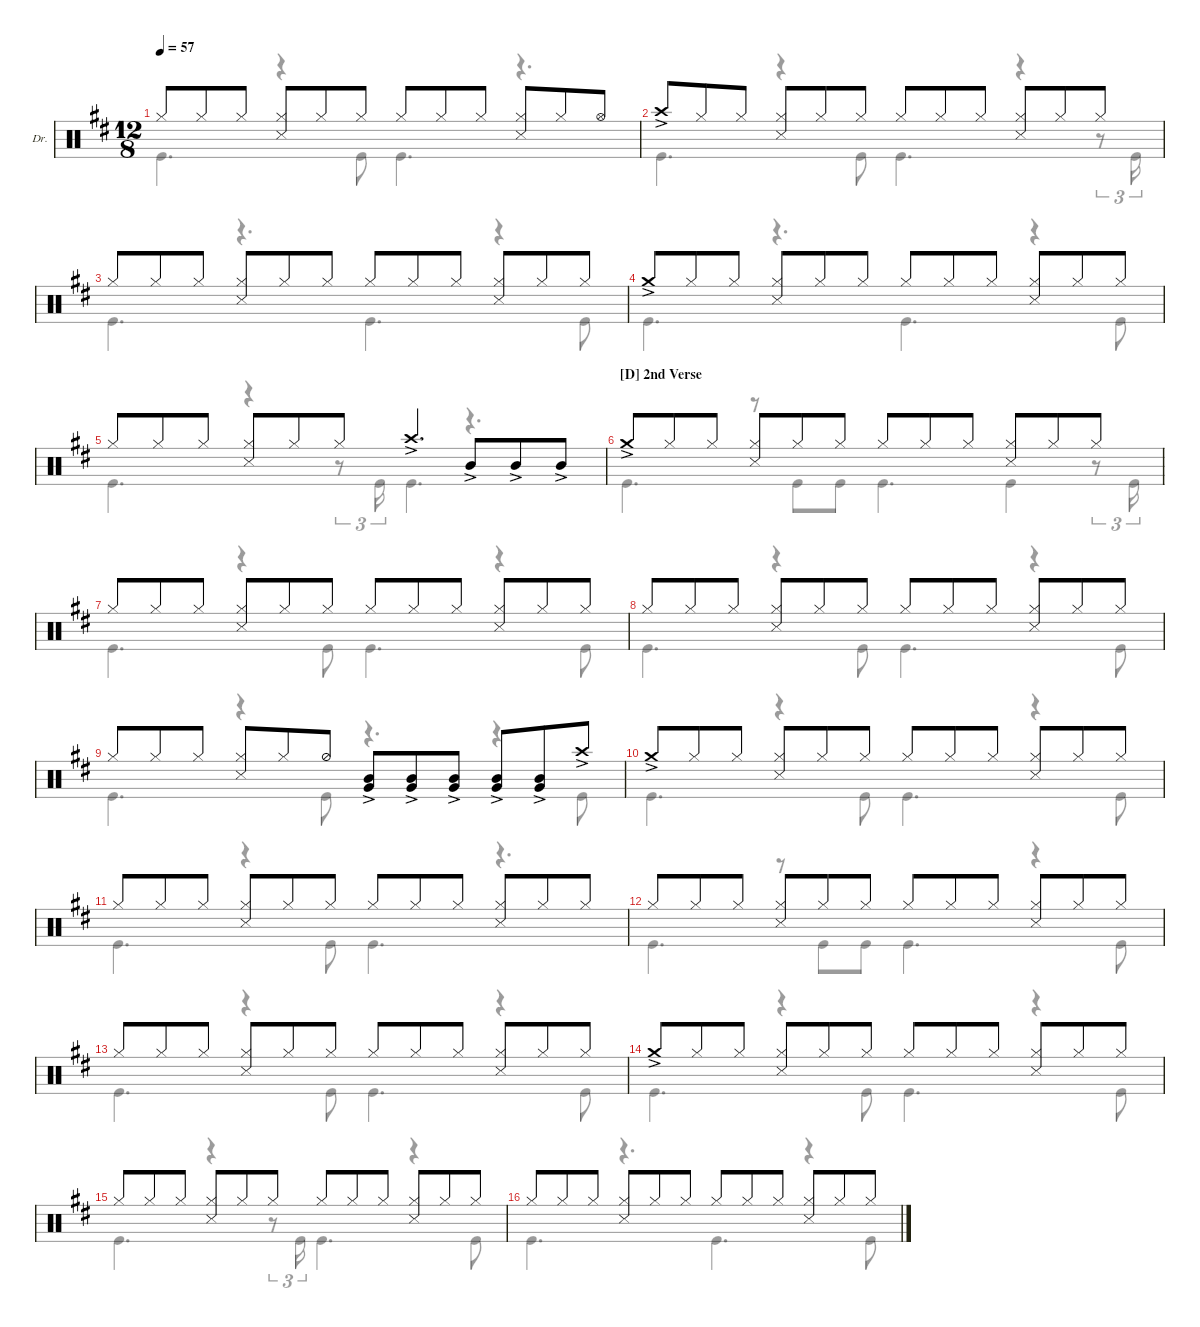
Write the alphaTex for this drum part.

\defaultSystemsLayout 4
\hideDynamics
\bracketExtendMode groupsimilarinstruments
\firstSystemTrackNameOrientation horizontal
\otherSystemsTrackNameOrientation horizontal
\track ("Drums" "Dr.") {instrument percussion}
\staff {score}
\articulation defaults
\voice
\ts (12 8)
\tempo 57
\clef neutral
\ks d "Hi-Hat (closed)".8{dy p} "Hi-Hat (closed)".8 "Hi-Hat (closed)".8
("Hi-Hat (closed)" "Snare (side stick) 3").8 "Hi-Hat (closed)".8 "Hi-Hat (closed)".8 "Hi-Hat (closed)".8 "Hi-Hat (closed)".8 "Hi-Hat (closed)".8 ("Hi-Hat (closed)" "Snare (side stick) 3").8 "Hi-Hat (closed)".8 "Hi-Hat (open)".8 |
"Crash high (hit)"{ac}.8 "Hi-Hat (closed)".8 "Hi-Hat (closed)".8 ("Hi-Hat (closed)" "Snare (side stick) 3").8 "Hi-Hat (closed)".8 "Hi-Hat (closed)".8 "Hi-Hat (closed)".8 "Hi-Hat (closed)".8 "Hi-Hat (closed)".8 ("Hi-Hat (closed)" "Snare (side stick) 3").8 "Hi-Hat (closed)".8 "Hi-Hat (closed)".8 |
"Hi-Hat (closed)".8 "Hi-Hat (closed)".8 "Hi-Hat (closed)".8 ("Hi-Hat (closed)" "Snare (side stick) 3").8 "Hi-Hat (closed)".8 "Hi-Hat (closed)".8 "Hi-Hat (closed)".8 "Hi-Hat (closed)".8 "Hi-Hat (closed)".8 ("Hi-Hat (closed)" "Snare (side stick) 3").8 "Hi-Hat (closed)".8 "Hi-Hat (closed)".8 |
"Crash medium (hit)"{ac}.8 "Hi-Hat (closed)".8 "Hi-Hat (closed)".8 ("Hi-Hat (closed)" "Snare (side stick) 3").8 "Hi-Hat (closed)".8 "Hi-Hat (closed)".8 "Hi-Hat (closed)".8 "Hi-Hat (closed)".8 "Hi-Hat (closed)".8 ("Hi-Hat (closed)" "Snare (side stick) 3").8 "Hi-Hat (closed)".8 "Hi-Hat (closed)".8 |
"Hi-Hat (closed)".8 "Hi-Hat (closed)".8 "Hi-Hat (closed)".8 ("Hi-Hat (closed)" "Snare (side stick) 3").8 "Hi-Hat (closed)".8 "Hi-Hat (closed)".8 "Crash high (hit)"{ac}.4{d} "Mid Tom (hit)"{ac}.8 "Mid Tom (hit)"{ac}.8 "Mid Tom (hit)"{ac}.8 |
\section ("D" "2nd Verse")
"Crash medium (hit)"{ac}.8 "Hi-Hat (closed)".8 "Hi-Hat (closed)".8 ("Hi-Hat (closed)" "Snare (side stick) 3").8 "Hi-Hat (closed)".8 "Hi-Hat (closed)".8 "Hi-Hat (closed)".8 "Hi-Hat (closed)".8 "Hi-Hat (closed)".8 ("Hi-Hat (closed)" "Snare (side stick) 3").8 "Hi-Hat (closed)".8 "Hi-Hat (closed)".8 |
"Hi-Hat (closed)".8 "Hi-Hat (closed)".8 "Hi-Hat (closed)".8 ("Hi-Hat (closed)" "Snare (side stick) 3").8 "Hi-Hat (closed)".8 "Hi-Hat (closed)".8 "Hi-Hat (closed)".8 "Hi-Hat (closed)".8 "Hi-Hat (closed)".8 ("Hi-Hat (closed)" "Snare (side stick) 3").8 "Hi-Hat (closed)".8 "Hi-Hat (closed)".8 |
"Hi-Hat (closed)".8 "Hi-Hat (closed)".8 "Hi-Hat (closed)".8 ("Hi-Hat (closed)" "Snare (side stick) 3").8 "Hi-Hat (closed)".8 "Hi-Hat (closed)".8 "Hi-Hat (closed)".8 "Hi-Hat (closed)".8 "Hi-Hat (closed)".8 ("Hi-Hat (closed)" "Snare (side stick) 3").8 "Hi-Hat (closed)".8 "Hi-Hat (closed)".8 |
"Hi-Hat (closed)".8 "Hi-Hat (closed)".8 "Hi-Hat (closed)".8 ("Hi-Hat (closed)" "Snare (side stick) 3").8 "Hi-Hat (closed)".8 "Hi-Hat (half)".8 ("Mid Tom (hit)"{ac} "Very Low Tom (hit)").8 ("Mid Tom (hit)"{ac} "Very Low Tom (hit)").8 ("Mid Tom (hit)"{ac} "Very Low Tom (hit)").8 ("Mid Tom (hit)"{ac} "Very Low Tom (hit)").8 ("Mid Tom (hit)"{ac} "Very Low Tom (hit)").8 "Crash high (hit)"{ac}.8 |
"Crash medium (hit)"{ac}.8 "Hi-Hat (closed)".8 "Hi-Hat (closed)".8 ("Hi-Hat (closed)" "Snare (side stick) 3").8 "Hi-Hat (closed)".8 "Hi-Hat (closed)".8 "Hi-Hat (closed)".8 "Hi-Hat (closed)".8 "Hi-Hat (closed)".8 ("Hi-Hat (closed)" "Snare (side stick) 3").8 "Hi-Hat (closed)".8 "Hi-Hat (closed)".8 |
"Hi-Hat (closed)".8 "Hi-Hat (closed)".8 "Hi-Hat (closed)".8 ("Hi-Hat (closed)" "Snare (side stick) 3").8 "Hi-Hat (closed)".8 "Hi-Hat (closed)".8 "Hi-Hat (closed)".8 "Hi-Hat (closed)".8 "Hi-Hat (closed)".8 ("Hi-Hat (closed)" "Snare (side stick) 3").8 "Hi-Hat (closed)".8 "Hi-Hat (closed)".8 |
"Hi-Hat (closed)".8 "Hi-Hat (closed)".8 "Hi-Hat (closed)".8 ("Hi-Hat (closed)" "Snare (side stick) 3").8 "Hi-Hat (closed)".8 "Hi-Hat (closed)".8 "Hi-Hat (closed)".8 "Hi-Hat (closed)".8 "Hi-Hat (closed)".8 ("Hi-Hat (closed)" "Snare (side stick) 3").8 "Hi-Hat (closed)".8 "Hi-Hat (closed)".8 |
"Hi-Hat (closed)".8 "Hi-Hat (closed)".8 "Hi-Hat (closed)".8 ("Hi-Hat (closed)" "Snare (side stick) 3").8 "Hi-Hat (closed)".8 "Hi-Hat (closed)".8 "Hi-Hat (closed)".8 "Hi-Hat (closed)".8 "Hi-Hat (closed)".8 ("Hi-Hat (closed)" "Snare (side stick) 3").8 "Hi-Hat (closed)".8 "Hi-Hat (closed)".8 |
"Crash medium (hit)"{ac}.8 "Hi-Hat (closed)".8 "Hi-Hat (closed)".8 ("Hi-Hat (closed)" "Snare (side stick) 3").8 "Hi-Hat (closed)".8 "Hi-Hat (closed)".8 "Hi-Hat (closed)".8 "Hi-Hat (closed)".8 "Hi-Hat (closed)".8 ("Hi-Hat (closed)" "Snare (side stick) 3").8 "Hi-Hat (closed)".8 "Hi-Hat (closed)".8 |
"Hi-Hat (closed)".8 "Hi-Hat (closed)".8 "Hi-Hat (closed)".8 ("Hi-Hat (closed)" "Snare (side stick) 3").8 "Hi-Hat (closed)".8 "Hi-Hat (closed)".8 "Hi-Hat (closed)".8 "Hi-Hat (closed)".8 "Hi-Hat (closed)".8 ("Hi-Hat (closed)" "Snare (side stick) 3").8 "Hi-Hat (closed)".8 "Hi-Hat (closed)".8 |
"Hi-Hat (closed)".8 "Hi-Hat (closed)".8 "Hi-Hat (closed)".8 ("Hi-Hat (closed)" "Snare (side stick) 3").8 "Hi-Hat (closed)".8 "Hi-Hat (closed)".8 "Hi-Hat (closed)".8 "Hi-Hat (closed)".8 "Hi-Hat (closed)".8 ("Hi-Hat (closed)" "Snare (side stick) 3").8 "Hi-Hat (closed)".8 "Hi-Hat (closed)".8
\voice
\clef neutral
\ottava regular
\simile none
\ks d "Kick (hit)".4{d dy p}
r.4 "Kick (hit)".8 "Kick (hit)".4{d} r.4{d} |
"Kick (hit)".4{d} r.4 "Kick (hit)".8 "Kick (hit)".4{d} r.4 r.8{tu (3 2)} "Kick (hit)".16{tu (3 2)} |
"Kick (hit)".4{d} r.4{d} "Kick (hit)".4{d} r.4 "Kick (hit)".8 |
"Kick (hit)".4{d} r.4{d} "Kick (hit)".4{d} r.4 "Kick (hit)".8 |
"Kick (hit)".4{d} r.4 r.8{tu (3 2)} "Kick (hit)".16{tu (3 2)} "Kick (hit)".4{d} r.4{d} |
"Kick (hit)".4{d} r.8 "Kick (hit)".8 "Kick (hit)".8 "Kick (hit)".4{d} "Kick (hit)".4 r.8{tu (3 2)} "Kick (hit)".16{tu (3 2)} |
"Kick (hit)".4{d} r.4 "Kick (hit)".8 "Kick (hit)".4{d} r.4 "Kick (hit)".8 |
"Kick (hit)".4{d} r.4 "Kick (hit)".8 "Kick (hit)".4{d} r.4 "Kick (hit)".8 |
"Kick (hit)".4{d} r.4 "Kick (hit)".8 r.4{d} r.4 "Kick (hit)".8 |
"Kick (hit)".4{d} r.4 "Kick (hit)".8 "Kick (hit)".4{d} r.4 "Kick (hit)".8 |
"Kick (hit)".4{d} r.4 "Kick (hit)".8 "Kick (hit)".4{d} r.4{d} |
"Kick (hit)".4{d} r.8 "Kick (hit)".8 "Kick (hit)".8 "Kick (hit)".4{d} r.4 "Kick (hit)".8 |
"Kick (hit)".4{d} r.4 "Kick (hit)".8 "Kick (hit)".4{d} r.4 "Kick (hit)".8 |
"Kick (hit)".4{d} r.4 "Kick (hit)".8 "Kick (hit)".4{d} r.4 "Kick (hit)".8 |
"Kick (hit)".4{d} r.4 r.8{tu (3 2)} "Kick (hit)".16{tu (3 2)} "Kick (hit)".4{d} r.4 "Kick (hit)".8 |
"Kick (hit)".4{d} r.4{d} "Kick (hit)".4{d} r.4 "Kick (hit)".8
